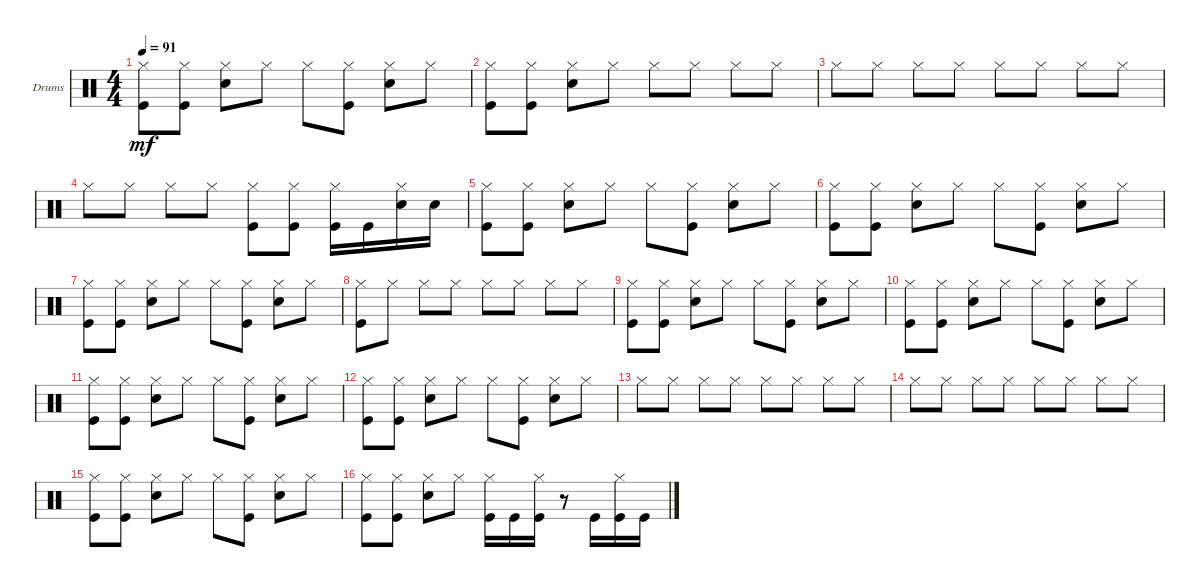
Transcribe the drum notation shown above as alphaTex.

\defaultSystemsLayout 4
\bracketExtendMode groupsimilarinstruments
\firstSystemTrackNameOrientation horizontal
\otherSystemsTrackNameOrientation horizontal
\track ("Drumkit" "Drums") {instrument percussion}
\staff {score}
\articulation defaults
\ts (4 4)
\tempo 91
\clef neutral
\ks c
("Kick (hit)" "Hi-Hat (closed)").8{dy mf} ("Kick (hit)" "Hi-Hat (closed)").8 ("Hi-Hat (closed)" "Snare (hit) 2").8 "Hi-Hat (closed)".8 "Hi-Hat (closed)".8 ("Kick (hit)" "Hi-Hat (closed)").8 ("Hi-Hat (closed)" "Snare (hit) 2").8 "Hi-Hat (closed)".8 |
("Kick (hit)" "Hi-Hat (closed)").8 ("Kick (hit)" "Hi-Hat (closed)").8 ("Hi-Hat (closed)" "Snare (hit) 2").8 "Hi-Hat (closed)".8 "Hi-Hat (closed)".8 "Hi-Hat (closed)".8 "Hi-Hat (closed)".8 "Hi-Hat (closed)".8 |
"Hi-Hat (closed)".8 "Hi-Hat (closed)".8 "Hi-Hat (closed)".8 "Hi-Hat (closed)".8 "Hi-Hat (closed)".8 "Hi-Hat (closed)".8 "Hi-Hat (closed)".8 "Hi-Hat (closed)".8 |
"Hi-Hat (closed)".8 "Hi-Hat (closed)".8 "Hi-Hat (closed)".8 "Hi-Hat (closed)".8 ("Kick (hit)" "Hi-Hat (closed)").8 ("Kick (hit)" "Hi-Hat (closed)").8 ("Kick (hit)" "Hi-Hat (closed)").16 "Kick (hit)".16 ("Snare (hit) 2" "Hi-Hat (closed)").16 "Snare (hit) 2".16 |
("Kick (hit)" "Hi-Hat (closed)").8 ("Kick (hit)" "Hi-Hat (closed)").8 ("Hi-Hat (closed)" "Snare (hit) 2").8 "Hi-Hat (closed)".8 "Hi-Hat (closed)".8 ("Kick (hit)" "Hi-Hat (closed)").8 ("Hi-Hat (closed)" "Snare (hit) 2").8 "Hi-Hat (closed)".8 |
("Kick (hit)" "Hi-Hat (closed)").8 ("Kick (hit)" "Hi-Hat (closed)").8 ("Hi-Hat (closed)" "Snare (hit) 2").8 "Hi-Hat (closed)".8 "Hi-Hat (closed)".8 ("Kick (hit)" "Hi-Hat (closed)").8 ("Hi-Hat (closed)" "Snare (hit) 2").8 "Hi-Hat (closed)".8 |
("Kick (hit)" "Hi-Hat (closed)").8 ("Kick (hit)" "Hi-Hat (closed)").8 ("Hi-Hat (closed)" "Snare (hit) 2").8 "Hi-Hat (closed)".8 "Hi-Hat (closed)".8 ("Kick (hit)" "Hi-Hat (closed)").8 ("Hi-Hat (closed)" "Snare (hit) 2").8 "Hi-Hat (closed)".8 |
("Kick (hit)" "Hi-Hat (closed)").8 "Hi-Hat (closed)".8 "Hi-Hat (closed)".8 "Hi-Hat (closed)".8 "Hi-Hat (closed)".8 "Hi-Hat (closed)".8 "Hi-Hat (closed)".8 "Hi-Hat (closed)".8 |
("Kick (hit)" "Hi-Hat (closed)").8 ("Kick (hit)" "Hi-Hat (closed)").8 ("Hi-Hat (closed)" "Snare (hit) 2").8 "Hi-Hat (closed)".8 "Hi-Hat (closed)".8 ("Kick (hit)" "Hi-Hat (closed)").8 ("Hi-Hat (closed)" "Snare (hit) 2").8 "Hi-Hat (closed)".8 |
("Kick (hit)" "Hi-Hat (closed)").8 ("Kick (hit)" "Hi-Hat (closed)").8 ("Hi-Hat (closed)" "Snare (hit) 2").8 "Hi-Hat (closed)".8 "Hi-Hat (closed)".8 ("Kick (hit)" "Hi-Hat (closed)").8 ("Hi-Hat (closed)" "Snare (hit) 2").8 "Hi-Hat (closed)".8 |
("Kick (hit)" "Hi-Hat (closed)").8 ("Kick (hit)" "Hi-Hat (closed)").8 ("Hi-Hat (closed)" "Snare (hit) 2").8 "Hi-Hat (closed)".8 "Hi-Hat (closed)".8 ("Kick (hit)" "Hi-Hat (closed)").8 ("Hi-Hat (closed)" "Snare (hit) 2").8 "Hi-Hat (closed)".8 |
("Kick (hit)" "Hi-Hat (closed)").8 ("Kick (hit)" "Hi-Hat (closed)").8 ("Hi-Hat (closed)" "Snare (hit) 2").8 "Hi-Hat (closed)".8 "Hi-Hat (closed)".8 ("Kick (hit)" "Hi-Hat (closed)").8 ("Hi-Hat (closed)" "Snare (hit) 2").8 "Hi-Hat (closed)".8 |
"Hi-Hat (closed)".8 "Hi-Hat (closed)".8 "Hi-Hat (closed)".8 "Hi-Hat (closed)".8 "Hi-Hat (closed)".8 "Hi-Hat (closed)".8 "Hi-Hat (closed)".8 "Hi-Hat (closed)".8 |
"Hi-Hat (closed)".8 "Hi-Hat (closed)".8 "Hi-Hat (closed)".8 "Hi-Hat (closed)".8 "Hi-Hat (closed)".8 "Hi-Hat (closed)".8 "Hi-Hat (closed)".8 "Hi-Hat (closed)".8 |
("Kick (hit)" "Hi-Hat (closed)").8 ("Kick (hit)" "Hi-Hat (closed)").8 ("Hi-Hat (closed)" "Snare (hit) 2").8 "Hi-Hat (closed)".8 "Hi-Hat (closed)".8 ("Kick (hit)" "Hi-Hat (closed)").8 ("Hi-Hat (closed)" "Snare (hit) 2").8 "Hi-Hat (closed)".8 |
("Kick (hit)" "Hi-Hat (closed)").8 ("Kick (hit)" "Hi-Hat (closed)").8 ("Hi-Hat (closed)" "Snare (hit) 2").8 "Hi-Hat (closed)".8 ("Hi-Hat (closed)" "Kick (hit)").16 "Kick (hit)".16 ("Kick (hit)" "Hi-Hat (closed)").16 r.8 "Kick (hit)".16 ("Kick (hit)" "Hi-Hat (closed)").16 "Kick (hit)".16
